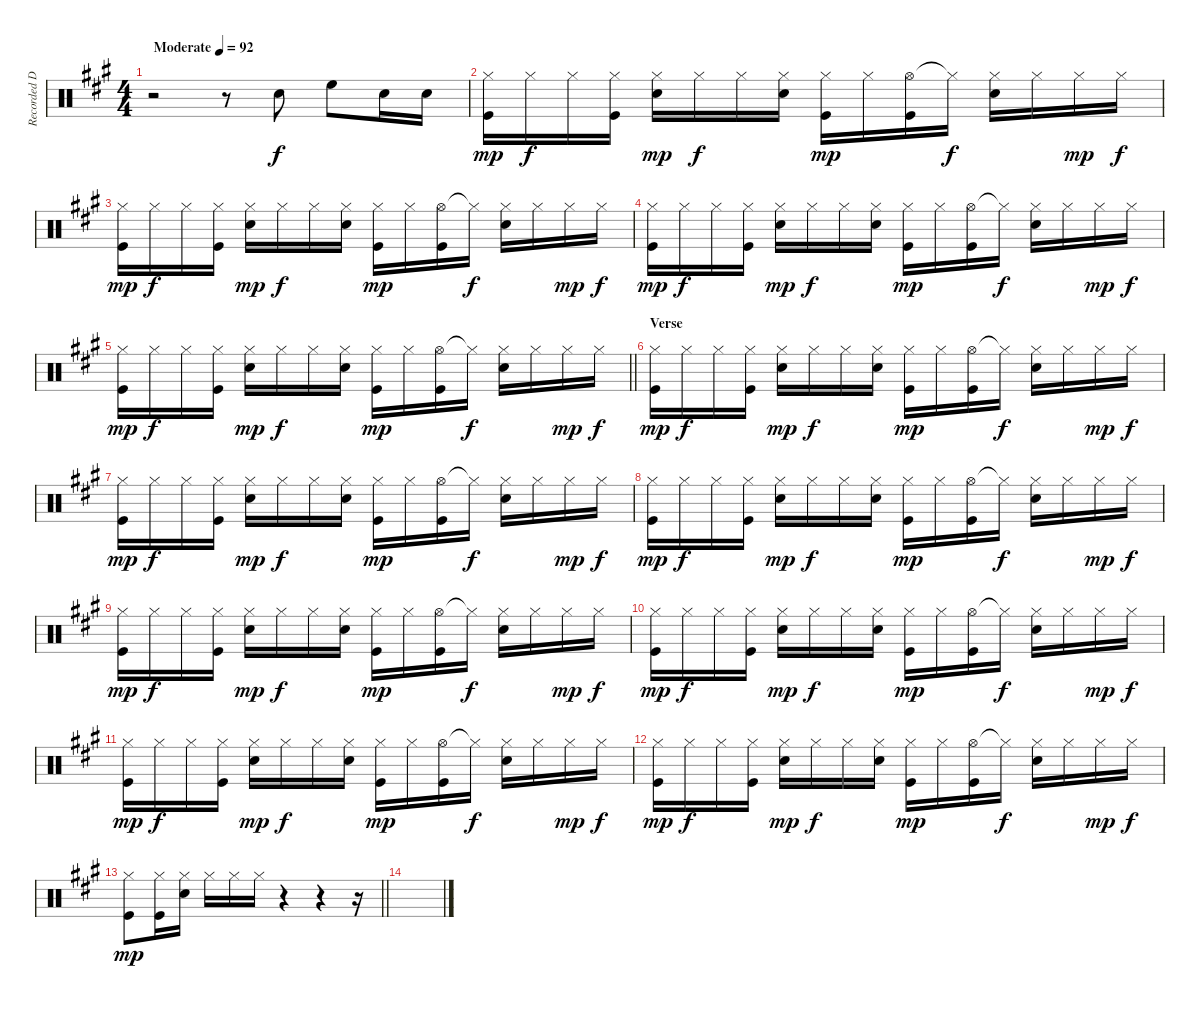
\track ("Recorded Durms" "Recorded D") {instrument percussion}
\staff {score}
\articulation defaults
\ts (4 4)
\tempo (92 "Moderate")
\clef neutral
\ks a
r.2{dy f volume 9 balance 0} r.8 "Snare (hit) 2".8 "High Floor Tom (hit)".8 "Snare (hit) 2".16 "Snare (hit) 2".16 |
("Hi-Hat (closed)" "Kick (hit)").16{dy mp} "Hi-Hat (closed)".16{dy f} "Hi-Hat (closed)".16 ("Hi-Hat (closed)" "Kick (hit)").16 ("Hi-Hat (closed)" "Snare (hit) 2").16{dy mp} "Hi-Hat (closed)".16{dy f} "Hi-Hat (closed)".16 ("Hi-Hat (closed)" "Snare (hit) 2").16 ("Hi-Hat (closed)" "Kick (hit)").16{dy mp} "Hi-Hat (closed)".16 ("Hi-Hat (open)" "Kick (hit)").16 "Hi-Hat (closed)"{t}.16{dy f} ("Hi-Hat (closed)" "Snare (hit) 2").16 "Hi-Hat (closed)".16 "Hi-Hat (closed)".16{dy mp} "Hi-Hat (closed)".16{dy f} |
("Hi-Hat (closed)" "Kick (hit)").16{dy mp} "Hi-Hat (closed)".16{dy f} "Hi-Hat (closed)".16 ("Hi-Hat (closed)" "Kick (hit)").16 ("Hi-Hat (closed)" "Snare (hit) 2").16{dy mp} "Hi-Hat (closed)".16{dy f} "Hi-Hat (closed)".16 ("Hi-Hat (closed)" "Snare (hit) 2").16 ("Hi-Hat (closed)" "Kick (hit)").16{dy mp} "Hi-Hat (closed)".16 ("Hi-Hat (open)" "Kick (hit)").16 "Hi-Hat (closed)"{t}.16{dy f} ("Hi-Hat (closed)" "Snare (hit) 2").16 "Hi-Hat (closed)".16 "Hi-Hat (closed)".16{dy mp} "Hi-Hat (closed)".16{dy f} |
("Hi-Hat (closed)" "Kick (hit)").16{dy mp} "Hi-Hat (closed)".16{dy f} "Hi-Hat (closed)".16 ("Hi-Hat (closed)" "Kick (hit)").16 ("Hi-Hat (closed)" "Snare (hit) 2").16{dy mp} "Hi-Hat (closed)".16{dy f} "Hi-Hat (closed)".16 ("Hi-Hat (closed)" "Snare (hit) 2").16 ("Hi-Hat (closed)" "Kick (hit)").16{dy mp} "Hi-Hat (closed)".16 ("Hi-Hat (open)" "Kick (hit)").16 "Hi-Hat (closed)"{t}.16{dy f} ("Hi-Hat (closed)" "Snare (hit) 2").16 "Hi-Hat (closed)".16 "Hi-Hat (closed)".16{dy mp} "Hi-Hat (closed)".16{dy f} |
\barLineRight lightlight
("Hi-Hat (closed)" "Kick (hit)").16{dy mp} "Hi-Hat (closed)".16{dy f} "Hi-Hat (closed)".16 ("Hi-Hat (closed)" "Kick (hit)").16 ("Hi-Hat (closed)" "Snare (hit) 2").16{dy mp} "Hi-Hat (closed)".16{dy f} "Hi-Hat (closed)".16 ("Hi-Hat (closed)" "Snare (hit) 2").16 ("Hi-Hat (closed)" "Kick (hit)").16{dy mp} "Hi-Hat (closed)".16 ("Hi-Hat (open)" "Kick (hit)").16 "Hi-Hat (closed)"{t}.16{dy f} ("Hi-Hat (closed)" "Snare (hit) 2").16 "Hi-Hat (closed)".16 "Hi-Hat (closed)".16{dy mp} "Hi-Hat (closed)".16{dy f} |
\section ("" "Verse")
("Hi-Hat (closed)" "Kick (hit)").16{dy mp} "Hi-Hat (closed)".16{dy f} "Hi-Hat (closed)".16 ("Hi-Hat (closed)" "Kick (hit)").16 ("Hi-Hat (closed)" "Snare (hit) 2").16{dy mp} "Hi-Hat (closed)".16{dy f} "Hi-Hat (closed)".16 ("Hi-Hat (closed)" "Snare (hit) 2").16 ("Hi-Hat (closed)" "Kick (hit)").16{dy mp} "Hi-Hat (closed)".16 ("Hi-Hat (open)" "Kick (hit)").16 "Hi-Hat (closed)"{t}.16{dy f} ("Hi-Hat (closed)" "Snare (hit) 2").16 "Hi-Hat (closed)".16 "Hi-Hat (closed)".16{dy mp} "Hi-Hat (closed)".16{dy f} |
("Hi-Hat (closed)" "Kick (hit)").16{dy mp} "Hi-Hat (closed)".16{dy f} "Hi-Hat (closed)".16 ("Hi-Hat (closed)" "Kick (hit)").16 ("Hi-Hat (closed)" "Snare (hit) 2").16{dy mp} "Hi-Hat (closed)".16{dy f} "Hi-Hat (closed)".16 ("Hi-Hat (closed)" "Snare (hit) 2").16 ("Hi-Hat (closed)" "Kick (hit)").16{dy mp} "Hi-Hat (closed)".16 ("Hi-Hat (open)" "Kick (hit)").16 "Hi-Hat (closed)"{t}.16{dy f} ("Hi-Hat (closed)" "Snare (hit) 2").16 "Hi-Hat (closed)".16 "Hi-Hat (closed)".16{dy mp} "Hi-Hat (closed)".16{dy f} |
("Hi-Hat (closed)" "Kick (hit)").16{dy mp} "Hi-Hat (closed)".16{dy f} "Hi-Hat (closed)".16 ("Hi-Hat (closed)" "Kick (hit)").16 ("Hi-Hat (closed)" "Snare (hit) 2").16{dy mp} "Hi-Hat (closed)".16{dy f} "Hi-Hat (closed)".16 ("Hi-Hat (closed)" "Snare (hit) 2").16 ("Hi-Hat (closed)" "Kick (hit)").16{dy mp} "Hi-Hat (closed)".16 ("Hi-Hat (open)" "Kick (hit)").16 "Hi-Hat (closed)"{t}.16{dy f} ("Hi-Hat (closed)" "Snare (hit) 2").16 "Hi-Hat (closed)".16 "Hi-Hat (closed)".16{dy mp} "Hi-Hat (closed)".16{dy f} |
("Hi-Hat (closed)" "Kick (hit)").16{dy mp} "Hi-Hat (closed)".16{dy f} "Hi-Hat (closed)".16 ("Hi-Hat (closed)" "Kick (hit)").16 ("Hi-Hat (closed)" "Snare (hit) 2").16{dy mp} "Hi-Hat (closed)".16{dy f} "Hi-Hat (closed)".16 ("Hi-Hat (closed)" "Snare (hit) 2").16 ("Hi-Hat (closed)" "Kick (hit)").16{dy mp} "Hi-Hat (closed)".16 ("Hi-Hat (open)" "Kick (hit)").16 "Hi-Hat (closed)"{t}.16{dy f} ("Hi-Hat (closed)" "Snare (hit) 2").16 "Hi-Hat (closed)".16 "Hi-Hat (closed)".16{dy mp} "Hi-Hat (closed)".16{dy f} |
("Hi-Hat (closed)" "Kick (hit)").16{dy mp} "Hi-Hat (closed)".16{dy f} "Hi-Hat (closed)".16 ("Hi-Hat (closed)" "Kick (hit)").16 ("Hi-Hat (closed)" "Snare (hit) 2").16{dy mp} "Hi-Hat (closed)".16{dy f} "Hi-Hat (closed)".16 ("Hi-Hat (closed)" "Snare (hit) 2").16 ("Hi-Hat (closed)" "Kick (hit)").16{dy mp} "Hi-Hat (closed)".16 ("Hi-Hat (open)" "Kick (hit)").16 "Hi-Hat (closed)"{t}.16{dy f} ("Hi-Hat (closed)" "Snare (hit) 2").16 "Hi-Hat (closed)".16 "Hi-Hat (closed)".16{dy mp} "Hi-Hat (closed)".16{dy f} |
("Hi-Hat (closed)" "Kick (hit)").16{dy mp} "Hi-Hat (closed)".16{dy f} "Hi-Hat (closed)".16 ("Hi-Hat (closed)" "Kick (hit)").16 ("Hi-Hat (closed)" "Snare (hit) 2").16{dy mp} "Hi-Hat (closed)".16{dy f} "Hi-Hat (closed)".16 ("Hi-Hat (closed)" "Snare (hit) 2").16 ("Hi-Hat (closed)" "Kick (hit)").16{dy mp} "Hi-Hat (closed)".16 ("Hi-Hat (open)" "Kick (hit)").16 "Hi-Hat (closed)"{t}.16{dy f} ("Hi-Hat (closed)" "Snare (hit) 2").16 "Hi-Hat (closed)".16 "Hi-Hat (closed)".16{dy mp} "Hi-Hat (closed)".16{dy f} |
("Hi-Hat (closed)" "Kick (hit)").16{dy mp} "Hi-Hat (closed)".16{dy f} "Hi-Hat (closed)".16 ("Hi-Hat (closed)" "Kick (hit)").16 ("Hi-Hat (closed)" "Snare (hit) 2").16{dy mp} "Hi-Hat (closed)".16{dy f} "Hi-Hat (closed)".16 ("Hi-Hat (closed)" "Snare (hit) 2").16 ("Hi-Hat (closed)" "Kick (hit)").16{dy mp} "Hi-Hat (closed)".16 ("Hi-Hat (open)" "Kick (hit)").16 "Hi-Hat (closed)"{t}.16{dy f} ("Hi-Hat (closed)" "Snare (hit) 2").16 "Hi-Hat (closed)".16 "Hi-Hat (closed)".16{dy mp} "Hi-Hat (closed)".16{dy f} |
\barLineRight lightlight
("Hi-Hat (closed)" "Kick (hit)").8{dy mp} ("Hi-Hat (closed)" "Kick (hit)").16 ("Hi-Hat (closed)" "Snare (hit) 2").16 "Hi-Hat (closed)".16 "Hi-Hat (closed)".16 "Hi-Hat (closed)".16 r.4 r.4 r.16 |
\section ("" "")
